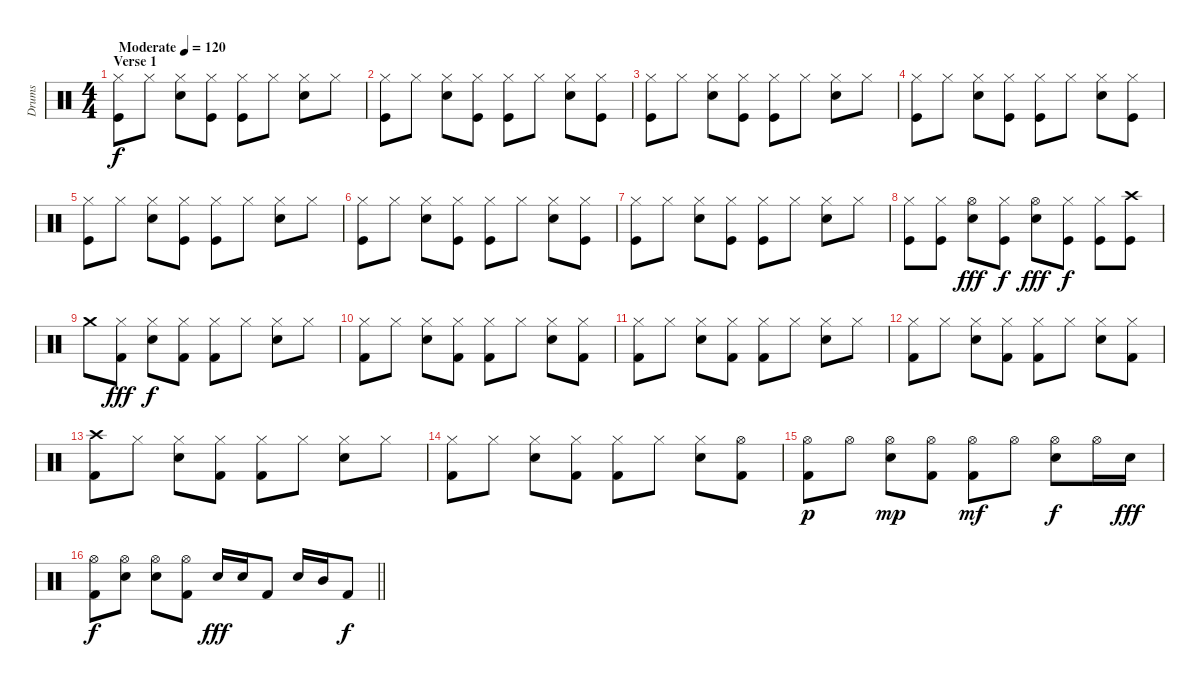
\track ("Drums" "Drums") {instrument percussion}
\staff {score}
\articulation defaults
\ts (4 4)
\section ("" "Verse 1")
\tempo (120 "Moderate")
\clef neutral
\ks c
("Hi-Hat (closed)" "Kick (hit)").8{dy f} "Hi-Hat (closed)".8 ("Hi-Hat (closed)" "Snare (hit) 2").8 ("Hi-Hat (closed)" "Kick (hit)").8 ("Hi-Hat (closed)" "Kick (hit)").8 "Hi-Hat (closed)".8 ("Hi-Hat (closed)" "Snare (hit) 2").8 "Hi-Hat (closed)".8 |
("Hi-Hat (closed)" "Kick (hit)").8 "Hi-Hat (closed)".8 ("Hi-Hat (closed)" "Snare (hit) 2").8 ("Hi-Hat (closed)" "Kick (hit)").8 ("Hi-Hat (closed)" "Kick (hit)").8 "Hi-Hat (closed)".8 ("Hi-Hat (closed)" "Snare (hit) 2").8 ("Hi-Hat (closed)" "Kick (hit)").8 |
("Hi-Hat (closed)" "Kick (hit)").8 "Hi-Hat (closed)".8 ("Hi-Hat (closed)" "Snare (hit) 2").8 ("Hi-Hat (closed)" "Kick (hit)").8 ("Hi-Hat (closed)" "Kick (hit)").8 "Hi-Hat (closed)".8 ("Hi-Hat (closed)" "Snare (hit) 2").8 "Hi-Hat (closed)".8 |
("Hi-Hat (closed)" "Kick (hit)").8 "Hi-Hat (closed)".8 ("Hi-Hat (closed)" "Snare (hit) 2").8 ("Hi-Hat (closed)" "Kick (hit)").8 ("Hi-Hat (closed)" "Kick (hit)").8 "Hi-Hat (closed)".8 ("Hi-Hat (closed)" "Snare (hit) 2").8 ("Hi-Hat (closed)" "Kick (hit)").8 |
("Hi-Hat (closed)" "Kick (hit)").8 "Hi-Hat (closed)".8 ("Hi-Hat (closed)" "Snare (hit) 2").8 ("Hi-Hat (closed)" "Kick (hit)").8 ("Hi-Hat (closed)" "Kick (hit)").8 "Hi-Hat (closed)".8 ("Hi-Hat (closed)" "Snare (hit) 2").8 "Hi-Hat (closed)".8 |
("Hi-Hat (closed)" "Kick (hit)").8 "Hi-Hat (closed)".8 ("Hi-Hat (closed)" "Snare (hit) 2").8 ("Hi-Hat (closed)" "Kick (hit)").8 ("Hi-Hat (closed)" "Kick (hit)").8 "Hi-Hat (closed)".8 ("Hi-Hat (closed)" "Snare (hit) 2").8 ("Hi-Hat (closed)" "Kick (hit)").8 |
("Hi-Hat (closed)" "Kick (hit)").8 "Hi-Hat (closed)".8 ("Hi-Hat (closed)" "Snare (hit) 2").8 ("Hi-Hat (closed)" "Kick (hit)").8 ("Hi-Hat (closed)" "Kick (hit)").8 "Hi-Hat (closed)".8 ("Hi-Hat (closed)" "Snare (hit) 2").8 "Hi-Hat (closed)".8 |
("Hi-Hat (closed)" "Kick (hit)").8 ("Hi-Hat (closed)" "Kick (hit)").8 ("Hi-Hat (open)" "Electric Snare (hit)").8{dy fff} ("Hi-Hat (closed)" "Kick (hit)").8{dy f} ("Hi-Hat (open)" "Electric Snare (hit)").8{dy fff} ("Hi-Hat (closed)" "Kick (hit)").8{dy f} ("Hi-Hat (closed)" "Kick (hit)").8 ("Crash high (hit)" "Kick (hit)").8 |
"Crash medium (hit)".8{volume 12} ("Hi-Hat (closed)" "Kick (hit) 2").8{dy fff} ("Hi-Hat (closed)" "Electric Snare (hit)").8{dy f} ("Hi-Hat (closed)" "Kick (hit) 2").8 ("Hi-Hat (closed)" "Kick (hit) 2").8 "Hi-Hat (closed)".8 ("Hi-Hat (closed)" "Electric Snare (hit)").8 "Hi-Hat (closed)".8 |
("Hi-Hat (closed)" "Kick (hit) 2").8 "Hi-Hat (closed)".8 ("Hi-Hat (closed)" "Electric Snare (hit)").8 ("Hi-Hat (closed)" "Kick (hit) 2").8 ("Hi-Hat (closed)" "Kick (hit) 2").8 "Hi-Hat (closed)".8 ("Hi-Hat (closed)" "Electric Snare (hit)").8 ("Hi-Hat (closed)" "Kick (hit) 2").8 |
("Hi-Hat (closed)" "Kick (hit) 2").8 "Hi-Hat (closed)".8 ("Hi-Hat (closed)" "Electric Snare (hit)").8 ("Hi-Hat (closed)" "Kick (hit) 2").8 ("Hi-Hat (closed)" "Kick (hit) 2").8 "Hi-Hat (closed)".8 ("Hi-Hat (closed)" "Electric Snare (hit)").8 "Hi-Hat (closed)".8 |
("Hi-Hat (closed)" "Kick (hit) 2").8 "Hi-Hat (closed)".8 ("Hi-Hat (closed)" "Electric Snare (hit)").8 ("Hi-Hat (closed)" "Kick (hit) 2").8 ("Hi-Hat (closed)" "Kick (hit) 2").8 "Hi-Hat (closed)".8 ("Hi-Hat (closed)" "Electric Snare (hit)").8 ("Hi-Hat (closed)" "Kick (hit) 2").8 |
("Crash high (hit)" "Kick (hit) 2").8 "Hi-Hat (closed)".8 ("Hi-Hat (closed)" "Electric Snare (hit)").8 ("Hi-Hat (closed)" "Kick (hit) 2").8 ("Hi-Hat (closed)" "Kick (hit) 2").8 "Hi-Hat (closed)".8 ("Hi-Hat (closed)" "Electric Snare (hit)").8 "Hi-Hat (closed)".8 |
("Hi-Hat (closed)" "Kick (hit) 2").8 "Hi-Hat (closed)".8 ("Hi-Hat (closed)" "Electric Snare (hit)").8 ("Hi-Hat (closed)" "Kick (hit) 2").8 ("Hi-Hat (closed)" "Kick (hit) 2").8 "Hi-Hat (closed)".8 ("Hi-Hat (closed)" "Electric Snare (hit)").8 ("Hi-Hat (open)" "Kick (hit) 2").8 |
("Hi-Hat (open)" "Kick (hit) 2").8{dy p} "Hi-Hat (open)".8 ("Hi-Hat (open)" "Electric Snare (hit)").8{dy mp} ("Hi-Hat (open)" "Kick (hit) 2").8 ("Hi-Hat (open)" "Kick (hit) 2").8{dy mf} "Hi-Hat (open)".8 ("Hi-Hat (open)" "Electric Snare (hit)").8{dy f} "Hi-Hat (open)".16 "Electric Snare (hit)".16{dy fff} |
\barLineRight lightlight
("Hi-Hat (open)" "Kick (hit) 2").8{dy f} ("Hi-Hat (open)" "Electric Snare (hit)").8 ("Hi-Hat (open)" "Electric Snare (hit)").8 ("Hi-Hat (open)" "Kick (hit) 2").8 "Electric Snare (hit)".16{dy fff} "Electric Snare (hit)".16 "Kick (hit) 2".8 "Electric Snare (hit)".16 "Mid Tom (hit)".16 "Kick (hit) 2".8{dy f}
